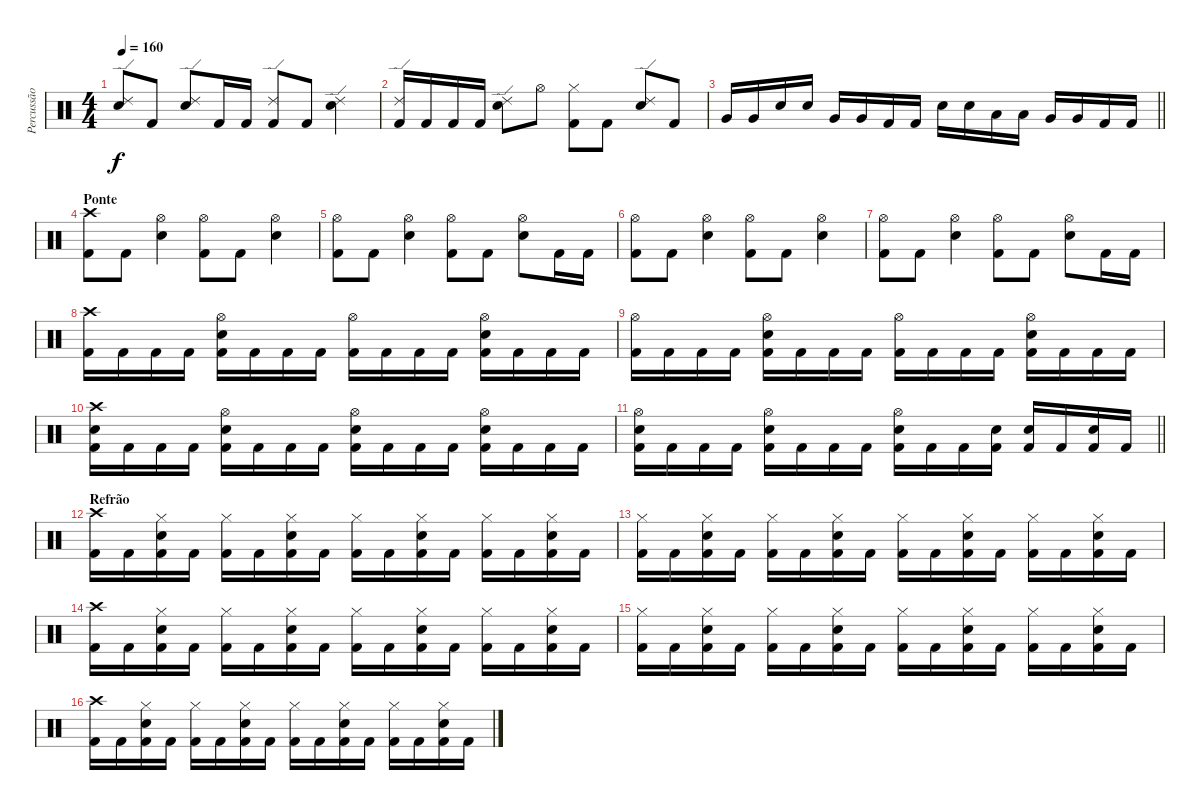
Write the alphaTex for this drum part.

\track ("Percussão" "Percussão") {instrument percussion}
\staff {score}
\articulation defaults
\ts (4 4)
\tempo 160
\clef neutral
\ks c
("Ride (edge) 2" "Snare (hit)"{t}).8{dy f} "Kick (hit) 2".8 ("Ride (edge) 2" "Electric Snare (hit)").8 "Kick (hit) 2".16 "Kick (hit) 2".16 ("Ride (edge) 2" "Kick (hit) 2").8 "Kick (hit) 2".8 ("Ride (edge) 2" "Electric Snare (hit)").4 |
("Ride (edge) 2" "Kick (hit) 2").16 "Kick (hit) 2".16 "Kick (hit) 2".16 "Kick (hit) 2".16 ("Ride (edge) 2" "Electric Snare (hit)").8 "Hi-Hat (open)".8 ("Hi-Hat (closed)" "Kick (hit) 2").8 "Kick (hit) 2".8 ("Ride (edge) 2" "Electric Snare (hit)").8 "Kick (hit) 2".8 |
\barLineRight lightlight "Very Low Tom (hit)".16 "Very Low Tom (hit)".16 "Electric Snare (hit)".16 "Electric Snare (hit)".16 "Very Low Tom (hit)".16 "Very Low Tom (hit)".16 "Kick (hit) 2".16 "Kick (hit) 2".16 "Electric Snare (hit)".16 "Electric Snare (hit)".16 "Low Tom (hit)".16 "Low Tom (hit)".16 "Very Low Tom (hit)".16 "Very Low Tom (hit)".16 "Kick (hit) 2".16 "Kick (hit) 2".16
|
\section ("" "Ponte")
("Crash high (hit)" "Kick (hit) 2").8 "Kick (hit) 2".8 ("Hi-Hat (open)" "Electric Snare (hit)").4 ("Hi-Hat (open)" "Kick (hit) 2").8 "Kick (hit) 2".8 ("Hi-Hat (open)" "Electric Snare (hit)").4 |
("Hi-Hat (open)" "Kick (hit) 2").8 "Kick (hit) 2".8 ("Hi-Hat (open)" "Electric Snare (hit)").4 ("Hi-Hat (open)" "Kick (hit) 2").8 "Kick (hit) 2".8 ("Hi-Hat (open)" "Electric Snare (hit)").8 "Kick (hit) 2".16 "Kick (hit) 2".16 |
("Hi-Hat (open)" "Kick (hit) 2").8 "Kick (hit) 2".8 ("Hi-Hat (open)" "Electric Snare (hit)").4 ("Hi-Hat (open)" "Kick (hit) 2").8 "Kick (hit) 2".8 ("Hi-Hat (open)" "Electric Snare (hit)").4 |
("Hi-Hat (open)" "Kick (hit) 2").8 "Kick (hit) 2".8 ("Hi-Hat (open)" "Electric Snare (hit)").4 ("Hi-Hat (open)" "Kick (hit) 2").8 "Kick (hit) 2".8 ("Hi-Hat (open)" "Electric Snare (hit)").8 "Kick (hit) 2".16 "Kick (hit) 2".16 |
("Crash high (hit)" "Kick (hit) 2").16 "Kick (hit) 2".16 "Kick (hit) 2".16 "Kick (hit) 2".16 ("Hi-Hat (open)" "Electric Snare (hit)" "Kick (hit) 2").16 "Kick (hit) 2".16 "Kick (hit) 2".16 "Kick (hit) 2".16 ("Hi-Hat (open)" "Kick (hit) 2").16 "Kick (hit) 2".16 "Kick (hit) 2".16 "Kick (hit) 2".16 ("Hi-Hat (open)" "Electric Snare (hit)" "Kick (hit) 2").16 "Kick (hit) 2".16 "Kick (hit) 2".16 "Kick (hit) 2".16 |
("Hi-Hat (open)" "Kick (hit) 2").16 "Kick (hit) 2".16 "Kick (hit) 2".16 "Kick (hit) 2".16 ("Hi-Hat (open)" "Electric Snare (hit)" "Kick (hit) 2").16 "Kick (hit) 2".16 "Kick (hit) 2".16 "Kick (hit) 2".16 ("Hi-Hat (open)" "Kick (hit) 2").16 "Kick (hit) 2".16 "Kick (hit) 2".16 "Kick (hit) 2".16 ("Hi-Hat (open)" "Electric Snare (hit)" "Kick (hit) 2").16 "Kick (hit) 2".16 "Kick (hit) 2".16 "Kick (hit) 2".16 |
("Crash high (hit)" "Electric Snare (hit)" "Kick (hit) 2").16 "Kick (hit) 2".16 "Kick (hit) 2".16 "Kick (hit) 2".16 ("Hi-Hat (open)" "Electric Snare (hit)" "Kick (hit) 2").16 "Kick (hit) 2".16 "Kick (hit) 2".16 "Kick (hit) 2".16 ("Hi-Hat (open)" "Electric Snare (hit)" "Kick (hit) 2").16 "Kick (hit) 2".16 "Kick (hit) 2".16 "Kick (hit) 2".16 ("Hi-Hat (open)" "Electric Snare (hit)" "Kick (hit) 2").16 "Kick (hit) 2".16 "Kick (hit) 2".16 "Kick (hit) 2".16 |
\barLineRight lightlight
("Hi-Hat (open)" "Electric Snare (hit)" "Kick (hit) 2").16 "Kick (hit) 2".16 "Kick (hit) 2".16 "Kick (hit) 2".16 ("Hi-Hat (open)" "Electric Snare (hit)" "Kick (hit) 2").16 "Kick (hit) 2".16 "Kick (hit) 2".16 "Kick (hit) 2".16 ("Hi-Hat (open)" "Electric Snare (hit)" "Kick (hit) 2").16 "Kick (hit) 2".16 "Kick (hit) 2".16 ("Electric Snare (hit)" "Kick (hit) 2").16 ("Electric Snare (hit)" "Kick (hit) 2").16 "Kick (hit) 2".16 ("Electric Snare (hit)" "Kick (hit) 2").16 "Kick (hit) 2".16 |
\section ("" "Refrão")
("Crash high (hit)" "Kick (hit) 2").16 "Kick (hit) 2".16 ("Hi-Hat (closed)" "Electric Snare (hit)" "Kick (hit) 2").16 "Kick (hit) 2".16 ("Hi-Hat (closed)" "Kick (hit) 2").16 "Kick (hit) 2".16 ("Hi-Hat (closed)" "Electric Snare (hit)" "Kick (hit) 2").16 "Kick (hit) 2".16 ("Hi-Hat (closed)" "Kick (hit) 2").16 "Kick (hit) 2".16 ("Hi-Hat (closed)" "Electric Snare (hit)" "Kick (hit) 2").16 "Kick (hit) 2".16 ("Hi-Hat (closed)" "Kick (hit) 2").16 "Kick (hit) 2".16 ("Hi-Hat (closed)" "Electric Snare (hit)" "Kick (hit) 2").16 "Kick (hit) 2".16 |
("Hi-Hat (closed)" "Kick (hit) 2").16 "Kick (hit) 2".16 ("Hi-Hat (closed)" "Electric Snare (hit)" "Kick (hit) 2").16 "Kick (hit) 2".16 ("Hi-Hat (closed)" "Kick (hit) 2").16 "Kick (hit) 2".16 ("Hi-Hat (closed)" "Electric Snare (hit)" "Kick (hit) 2").16 "Kick (hit) 2".16 ("Hi-Hat (closed)" "Kick (hit) 2").16 "Kick (hit) 2".16 ("Hi-Hat (closed)" "Electric Snare (hit)" "Kick (hit) 2").16 "Kick (hit) 2".16 ("Hi-Hat (closed)" "Kick (hit) 2").16 "Kick (hit) 2".16 ("Hi-Hat (closed)" "Electric Snare (hit)" "Kick (hit) 2").16 "Kick (hit) 2".16 |
("Crash high (hit)" "Kick (hit) 2").16 "Kick (hit) 2".16 ("Hi-Hat (closed)" "Electric Snare (hit)" "Kick (hit) 2").16 "Kick (hit) 2".16 ("Hi-Hat (closed)" "Kick (hit) 2").16 "Kick (hit) 2".16 ("Hi-Hat (closed)" "Electric Snare (hit)" "Kick (hit) 2").16 "Kick (hit) 2".16 ("Hi-Hat (closed)" "Kick (hit) 2").16 "Kick (hit) 2".16 ("Hi-Hat (closed)" "Electric Snare (hit)" "Kick (hit) 2").16 "Kick (hit) 2".16 ("Hi-Hat (closed)" "Kick (hit) 2").16 "Kick (hit) 2".16 ("Hi-Hat (closed)" "Electric Snare (hit)" "Kick (hit) 2").16 "Kick (hit) 2".16 |
("Hi-Hat (closed)" "Kick (hit) 2").16 "Kick (hit) 2".16 ("Hi-Hat (closed)" "Electric Snare (hit)" "Kick (hit) 2").16 "Kick (hit) 2".16 ("Hi-Hat (closed)" "Kick (hit) 2").16 "Kick (hit) 2".16 ("Hi-Hat (closed)" "Electric Snare (hit)" "Kick (hit) 2").16 "Kick (hit) 2".16 ("Hi-Hat (closed)" "Kick (hit) 2").16 "Kick (hit) 2".16 ("Hi-Hat (closed)" "Electric Snare (hit)" "Kick (hit) 2").16 "Kick (hit) 2".16 ("Hi-Hat (closed)" "Kick (hit) 2").16 "Kick (hit) 2".16 ("Hi-Hat (closed)" "Electric Snare (hit)" "Kick (hit) 2").16 "Kick (hit) 2".16 |
("Crash high (hit)" "Kick (hit) 2").16 "Kick (hit) 2".16 ("Hi-Hat (closed)" "Electric Snare (hit)" "Kick (hit) 2").16 "Kick (hit) 2".16 ("Hi-Hat (closed)" "Kick (hit) 2").16 "Kick (hit) 2".16 ("Hi-Hat (closed)" "Electric Snare (hit)" "Kick (hit) 2").16 "Kick (hit) 2".16 ("Hi-Hat (closed)" "Kick (hit) 2").16 "Kick (hit) 2".16 ("Hi-Hat (closed)" "Electric Snare (hit)" "Kick (hit) 2").16 "Kick (hit) 2".16 ("Hi-Hat (closed)" "Kick (hit) 2").16 "Kick (hit) 2".16 ("Hi-Hat (closed)" "Electric Snare (hit)" "Kick (hit) 2").16 "Kick (hit) 2".16
